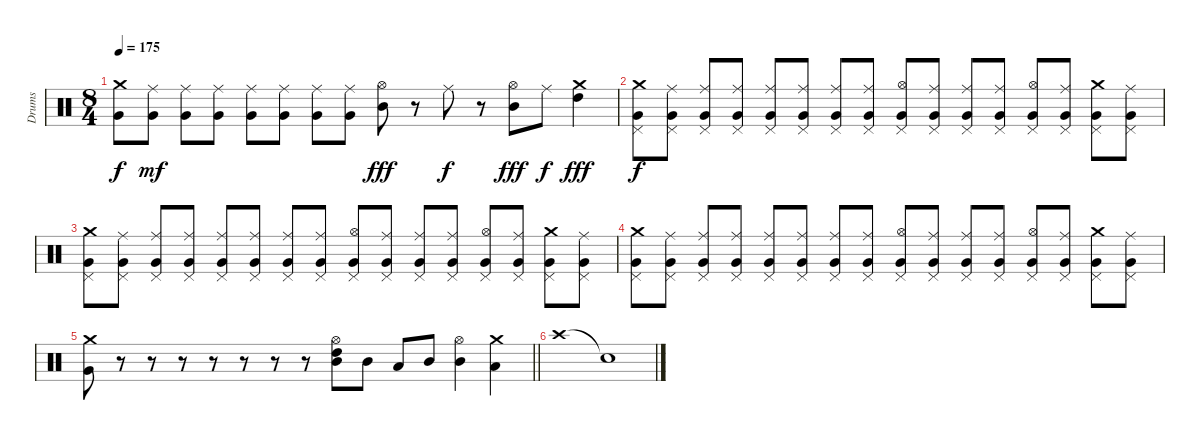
\track ("Drums" "Drums") {instrument percussion}
\staff {score}
\articulation defaults
\ts (8 4)
\tempo 175
\clef neutral
\ks c
("Crash medium (hit)" "Very Low Tom (hit)").8{dy f} ("Ride (middle)" "Very Low Tom (hit)").8{dy mf} ("Ride (middle)" "Very Low Tom (hit)").8 ("Ride (middle)" "Very Low Tom (hit)").8 ("Ride (middle)" "Very Low Tom (hit)").8 ("Ride (middle)" "Very Low Tom (hit)").8 ("Ride (middle)" "Very Low Tom (hit)").8 ("Ride (middle)" "Very Low Tom (hit)").8 ("Hi-Hat (open)" "Mid Tom (hit)").8{dy fff} r.8 "Ride (middle)".8{dy f} r.8 ("Hi-Hat (open)" "Mid Tom (hit)").8{dy fff} "Ride (middle)".8{dy f} ("Crash medium (hit)" "High Tom (hit)").4{dy fff} |
("Crash medium (hit)" "Very Low Tom (hit)" "Pedal Hi-Hat (hit)").8{dy f} ("Ride (middle)" "Very Low Tom (hit)" "Pedal Hi-Hat (hit)").8 ("Ride (middle)" "Very Low Tom (hit)" "Pedal Hi-Hat (hit)").8 ("Ride (middle)" "Very Low Tom (hit)" "Pedal Hi-Hat (hit)").8 ("Ride (middle)" "Very Low Tom (hit)" "Pedal Hi-Hat (hit)").8 ("Ride (middle)" "Very Low Tom (hit)" "Pedal Hi-Hat (hit)").8 ("Ride (middle)" "Very Low Tom (hit)" "Pedal Hi-Hat (hit)").8 ("Ride (middle)" "Very Low Tom (hit)" "Pedal Hi-Hat (hit)").8 ("Hi-Hat (open)" "Very Low Tom (hit)" "Pedal Hi-Hat (hit)").8 ("Ride (middle)" "Very Low Tom (hit)" "Pedal Hi-Hat (hit)").8 ("Ride (middle)" "Very Low Tom (hit)" "Pedal Hi-Hat (hit)").8 ("Ride (middle)" "Very Low Tom (hit)" "Pedal Hi-Hat (hit)").8 ("Hi-Hat (open)" "Very Low Tom (hit)" "Pedal Hi-Hat (hit)").8 ("Ride (middle)" "Very Low Tom (hit)" "Pedal Hi-Hat (hit)").8 ("Crash medium (hit)" "Very Low Tom (hit)" "Pedal Hi-Hat (hit)").8 ("Ride (middle)" "Very Low Tom (hit)" "Pedal Hi-Hat (hit)").8 |
("Crash medium (hit)" "Very Low Tom (hit)" "Pedal Hi-Hat (hit)").8 ("Ride (middle)" "Very Low Tom (hit)" "Pedal Hi-Hat (hit)").8 ("Ride (middle)" "Very Low Tom (hit)" "Pedal Hi-Hat (hit)").8 ("Ride (middle)" "Very Low Tom (hit)" "Pedal Hi-Hat (hit)").8 ("Ride (middle)" "Very Low Tom (hit)" "Pedal Hi-Hat (hit)").8 ("Ride (middle)" "Very Low Tom (hit)" "Pedal Hi-Hat (hit)").8 ("Ride (middle)" "Very Low Tom (hit)" "Pedal Hi-Hat (hit)").8 ("Ride (middle)" "Very Low Tom (hit)" "Pedal Hi-Hat (hit)").8 ("Hi-Hat (open)" "Very Low Tom (hit)" "Pedal Hi-Hat (hit)").8 ("Ride (middle)" "Very Low Tom (hit)" "Pedal Hi-Hat (hit)").8 ("Ride (middle)" "Very Low Tom (hit)" "Pedal Hi-Hat (hit)").8 ("Ride (middle)" "Very Low Tom (hit)" "Pedal Hi-Hat (hit)").8 ("Hi-Hat (open)" "Very Low Tom (hit)" "Pedal Hi-Hat (hit)").8 ("Ride (middle)" "Very Low Tom (hit)" "Pedal Hi-Hat (hit)").8 ("Crash medium (hit)" "Very Low Tom (hit)" "Pedal Hi-Hat (hit)").8 ("Ride (middle)" "Very Low Tom (hit)" "Pedal Hi-Hat (hit)").8 |
("Crash medium (hit)" "Very Low Tom (hit)" "Pedal Hi-Hat (hit)").8 ("Ride (middle)" "Very Low Tom (hit)" "Pedal Hi-Hat (hit)").8 ("Ride (middle)" "Very Low Tom (hit)" "Pedal Hi-Hat (hit)").8 ("Ride (middle)" "Very Low Tom (hit)" "Pedal Hi-Hat (hit)").8 ("Ride (middle)" "Very Low Tom (hit)" "Pedal Hi-Hat (hit)").8 ("Ride (middle)" "Very Low Tom (hit)" "Pedal Hi-Hat (hit)").8 ("Ride (middle)" "Very Low Tom (hit)" "Pedal Hi-Hat (hit)").8 ("Ride (middle)" "Very Low Tom (hit)" "Pedal Hi-Hat (hit)").8 ("Hi-Hat (open)" "Very Low Tom (hit)" "Pedal Hi-Hat (hit)").8 ("Ride (middle)" "Very Low Tom (hit)" "Pedal Hi-Hat (hit)").8 ("Ride (middle)" "Very Low Tom (hit)" "Pedal Hi-Hat (hit)").8 ("Ride (middle)" "Very Low Tom (hit)" "Pedal Hi-Hat (hit)").8 ("Hi-Hat (open)" "Very Low Tom (hit)" "Pedal Hi-Hat (hit)").8 ("Ride (middle)" "Very Low Tom (hit)" "Pedal Hi-Hat (hit)").8 ("Crash medium (hit)" "Very Low Tom (hit)" "Pedal Hi-Hat (hit)").8 ("Ride (middle)" "Very Low Tom (hit)" "Pedal Hi-Hat (hit)").8 |
\barLineRight lightlight
("Crash medium (hit)" "Very Low Tom (hit)").8 r.8 r.8 r.8 r.8 r.8 r.8 r.8 ("Hi-Hat (open)" "High Tom (hit)" "Mid Tom (hit)").8 "Mid Tom (hit)".8 "Low Tom (hit)".8 "Mid Tom (hit)".8 ("Hi-Hat (open)" "Mid Tom (hit)").4 ("Crash medium (hit)" "Low Tom (hit)").4 |
"Crash high (hit)".1 "Snare (hit)"{t}.1
